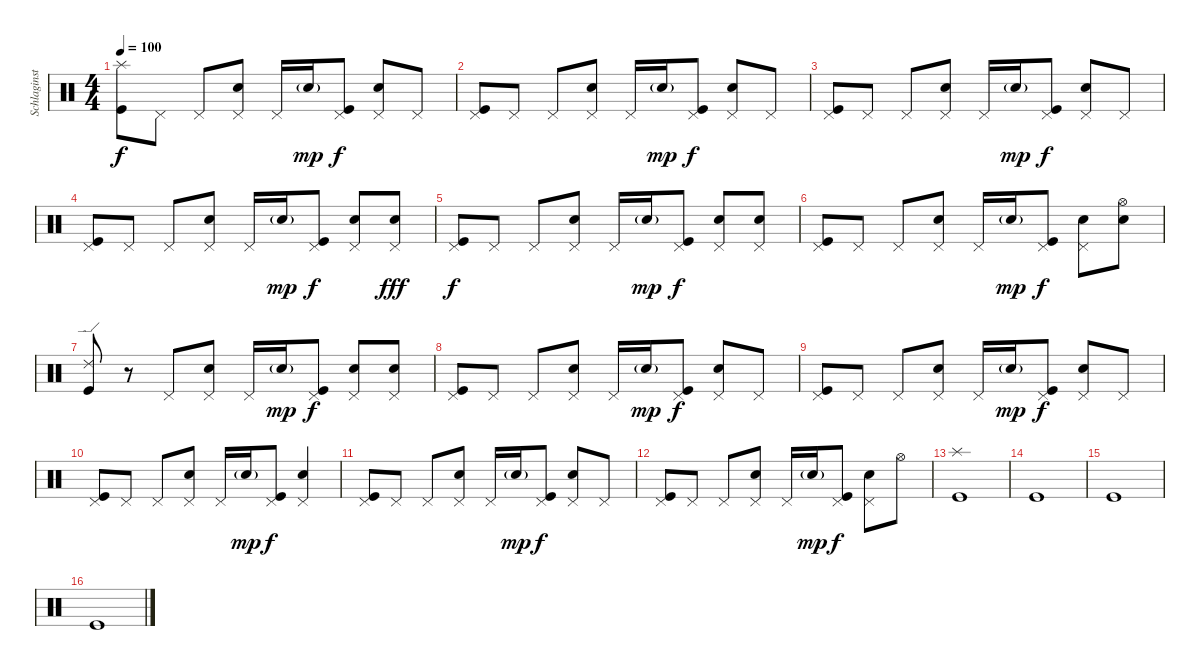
\track ("Schlaginstrumente - Auswahl" "Schlaginst") {instrument percussion}
\staff {score}
\articulation defaults
\ts (4 4)
\tempo 100
\clef neutral
\ks c
("Splash (hit)" "Kick (hit)").8{dy f} "Pedal Hi-Hat (hit)".8 "Pedal Hi-Hat (hit)".8 ("Pedal Hi-Hat (hit)" "Electric Snare (hit)").8 "Pedal Hi-Hat (hit)".16 "Electric Snare (hit)"{g}.16{dy mp} ("Pedal Hi-Hat (hit)" "Kick (hit)").8{dy f} ("Pedal Hi-Hat (hit)" "Electric Snare (hit)").8 "Pedal Hi-Hat (hit)".8 |
("Pedal Hi-Hat (hit)" "Kick (hit)").8 "Pedal Hi-Hat (hit)".8 "Pedal Hi-Hat (hit)".8 ("Pedal Hi-Hat (hit)" "Electric Snare (hit)").8 "Pedal Hi-Hat (hit)".16 "Electric Snare (hit)"{g}.16{dy mp} ("Pedal Hi-Hat (hit)" "Kick (hit)").8{dy f} ("Pedal Hi-Hat (hit)" "Electric Snare (hit)").8 "Pedal Hi-Hat (hit)".8 |
("Pedal Hi-Hat (hit)" "Kick (hit)").8 "Pedal Hi-Hat (hit)".8 "Pedal Hi-Hat (hit)".8 ("Pedal Hi-Hat (hit)" "Electric Snare (hit)").8 "Pedal Hi-Hat (hit)".16 "Electric Snare (hit)"{g}.16{dy mp} ("Pedal Hi-Hat (hit)" "Kick (hit)").8{dy f} ("Pedal Hi-Hat (hit)" "Electric Snare (hit)").8 "Pedal Hi-Hat (hit)".8 |
("Pedal Hi-Hat (hit)" "Kick (hit)").8 "Pedal Hi-Hat (hit)".8 "Pedal Hi-Hat (hit)".8 ("Pedal Hi-Hat (hit)" "Electric Snare (hit)").8 "Pedal Hi-Hat (hit)".16 "Electric Snare (hit)"{g}.16{dy mp} ("Pedal Hi-Hat (hit)" "Kick (hit)").8{dy f} ("Pedal Hi-Hat (hit)" "Electric Snare (hit)").8 ("Pedal Hi-Hat (hit)" "Electric Snare (hit)").8{dy fff} |
("Pedal Hi-Hat (hit)" "Kick (hit)").8{dy f} "Pedal Hi-Hat (hit)".8 "Pedal Hi-Hat (hit)".8 ("Pedal Hi-Hat (hit)" "Electric Snare (hit)").8 "Pedal Hi-Hat (hit)".16 "Electric Snare (hit)"{g}.16{dy mp} ("Pedal Hi-Hat (hit)" "Kick (hit)").8{dy f} ("Pedal Hi-Hat (hit)" "Electric Snare (hit)").8 ("Pedal Hi-Hat (hit)" "Electric Snare (hit)").8 |
("Pedal Hi-Hat (hit)" "Kick (hit)").8 "Pedal Hi-Hat (hit)".8 "Pedal Hi-Hat (hit)".8 ("Pedal Hi-Hat (hit)" "Electric Snare (hit)").8 "Pedal Hi-Hat (hit)".16 "Electric Snare (hit)"{g}.16{dy mp} ("Pedal Hi-Hat (hit)" "Kick (hit)").8{dy f} ("Pedal Hi-Hat (hit)" "Electric Snare (hit)").8 ("Hi-Hat (open)" "Electric Snare (hit)").8 |
("Ride (edge) 2" "Kick (hit)").8 r.8 "Pedal Hi-Hat (hit)".8 ("Pedal Hi-Hat (hit)" "Electric Snare (hit)").8 "Pedal Hi-Hat (hit)".16 "Electric Snare (hit)"{g}.16{dy mp} ("Pedal Hi-Hat (hit)" "Kick (hit)").8{dy f} ("Pedal Hi-Hat (hit)" "Electric Snare (hit)").8 ("Pedal Hi-Hat (hit)" "Electric Snare (hit)").8 |
("Pedal Hi-Hat (hit)" "Kick (hit)").8 "Pedal Hi-Hat (hit)".8 "Pedal Hi-Hat (hit)".8 ("Pedal Hi-Hat (hit)" "Electric Snare (hit)").8 "Pedal Hi-Hat (hit)".16 "Electric Snare (hit)"{g}.16{dy mp} ("Pedal Hi-Hat (hit)" "Kick (hit)").8{dy f} ("Pedal Hi-Hat (hit)" "Electric Snare (hit)").8 "Pedal Hi-Hat (hit)".8 |
("Pedal Hi-Hat (hit)" "Kick (hit)").8 "Pedal Hi-Hat (hit)".8 "Pedal Hi-Hat (hit)".8 ("Pedal Hi-Hat (hit)" "Electric Snare (hit)").8 "Pedal Hi-Hat (hit)".16 "Electric Snare (hit)"{g}.16{dy mp} ("Pedal Hi-Hat (hit)" "Kick (hit)").8{dy f} ("Pedal Hi-Hat (hit)" "Electric Snare (hit)").8 "Pedal Hi-Hat (hit)".8 |
("Pedal Hi-Hat (hit)" "Kick (hit)").8 "Pedal Hi-Hat (hit)".8 "Pedal Hi-Hat (hit)".8 ("Pedal Hi-Hat (hit)" "Electric Snare (hit)").8 "Pedal Hi-Hat (hit)".16 "Electric Snare (hit)"{g}.16{dy mp} ("Pedal Hi-Hat (hit)" "Kick (hit)").8{dy f} ("Pedal Hi-Hat (hit)" "Electric Snare (hit)").4 |
("Pedal Hi-Hat (hit)" "Kick (hit)").8 "Pedal Hi-Hat (hit)".8 "Pedal Hi-Hat (hit)".8 ("Pedal Hi-Hat (hit)" "Electric Snare (hit)").8 "Pedal Hi-Hat (hit)".16 "Electric Snare (hit)"{g}.16{dy mp} ("Pedal Hi-Hat (hit)" "Kick (hit)").8{dy f} ("Pedal Hi-Hat (hit)" "Electric Snare (hit)").8 "Pedal Hi-Hat (hit)".8 |
("Pedal Hi-Hat (hit)" "Kick (hit)").8 "Pedal Hi-Hat (hit)".8 "Pedal Hi-Hat (hit)".8 ("Pedal Hi-Hat (hit)" "Electric Snare (hit)").8 "Pedal Hi-Hat (hit)".16 "Electric Snare (hit)"{g}.16{dy mp} ("Pedal Hi-Hat (hit)" "Kick (hit)").8{dy f} ("Pedal Hi-Hat (hit)" "Electric Snare (hit)").8 "Hi-Hat (open)".8 |
("Splash (hit)" "Kick (hit)").1 |
"Kick (hit)".1 |
"Kick (hit)".1 |
"Kick (hit)".1
